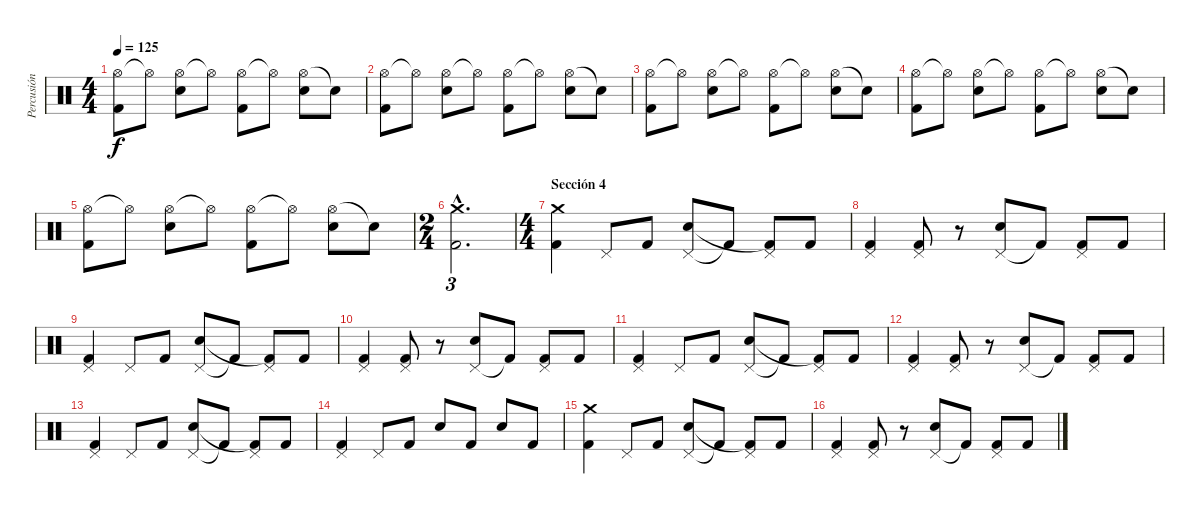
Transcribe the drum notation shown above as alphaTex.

\track ("Percusión" "Percusión") {instrument percussion}
\staff {score}
\articulation defaults
\ts (4 4)
\tempo 125
\clef neutral
\ks c
("Hi-Hat (open)" "Kick (hit) 2").8{dy f} "Hi-Hat (open)"{t}.8 ("Hi-Hat (open)" "Electric Snare (hit)").8 "Hi-Hat (open)"{t}.8 ("Hi-Hat (open)" "Kick (hit) 2").8 "Hi-Hat (open)"{t}.8 ("Hi-Hat (open)" "Electric Snare (hit)").8 "Snare (hit)"{t}.8 |
("Hi-Hat (open)" "Kick (hit) 2").8 "Hi-Hat (open)"{t}.8 ("Hi-Hat (open)" "Electric Snare (hit)").8 "Hi-Hat (open)"{t}.8 ("Hi-Hat (open)" "Kick (hit) 2").8 "Hi-Hat (open)"{t}.8 ("Hi-Hat (open)" "Electric Snare (hit)").8 "Snare (hit)"{t}.8 |
("Hi-Hat (open)" "Kick (hit) 2").8 "Hi-Hat (open)"{t}.8 ("Hi-Hat (open)" "Electric Snare (hit)").8 "Hi-Hat (open)"{t}.8 ("Hi-Hat (open)" "Kick (hit) 2").8 "Hi-Hat (open)"{t}.8 ("Hi-Hat (open)" "Electric Snare (hit)").8 "Snare (hit)"{t}.8 |
("Hi-Hat (open)" "Kick (hit) 2").8 "Hi-Hat (open)"{t}.8 ("Hi-Hat (open)" "Electric Snare (hit)").8 "Hi-Hat (open)"{t}.8 ("Hi-Hat (open)" "Kick (hit) 2").8 "Hi-Hat (open)"{t}.8 ("Hi-Hat (open)" "Electric Snare (hit)").8 "Snare (hit)"{t}.8 |
("Hi-Hat (open)" "Kick (hit) 2").8 "Hi-Hat (open)"{t}.8 ("Hi-Hat (open)" "Electric Snare (hit)").8 "Hi-Hat (open)"{t}.8 ("Hi-Hat (open)" "Kick (hit) 2").8 "Hi-Hat (open)"{t}.8 ("Hi-Hat (open)" "Electric Snare (hit)").8 "Snare (hit)"{t}.8 |
\ts (2 4)
("Kick (hit) 2"{hac} "Crash medium (hit)"{hac}).2{d tu (3 2)} |
\ts (4 4)
\section ("" "Sección 4")
("Kick (hit) 2" "Crash medium (hit)").4 "Pedal Hi-Hat (hit)".8 "Kick (hit) 2".8 ("Pedal Hi-Hat (hit)" "Snare (hit) 2").8 "Kick (hit) 2"{t}.8 ("Pedal Hi-Hat (hit)" "Kick (hit) 2"{t}).8 "Kick (hit) 2".8 |
("Kick (hit) 2" "Pedal Hi-Hat (hit)").4 ("Pedal Hi-Hat (hit)" "Kick (hit) 2").8 r.8 ("Pedal Hi-Hat (hit)" "Snare (hit) 2").8 "Kick (hit) 2"{t}.8 ("Pedal Hi-Hat (hit)" "Kick (hit) 2").8 "Kick (hit) 2".8 |
("Kick (hit) 2" "Pedal Hi-Hat (hit)").4 "Pedal Hi-Hat (hit)".8 "Kick (hit) 2".8 ("Pedal Hi-Hat (hit)" "Snare (hit) 2").8 "Kick (hit) 2"{t}.8 ("Pedal Hi-Hat (hit)" "Kick (hit) 2"{t}).8 "Kick (hit) 2".8 |
("Kick (hit) 2" "Pedal Hi-Hat (hit)").4 ("Pedal Hi-Hat (hit)" "Kick (hit) 2").8 r.8 ("Pedal Hi-Hat (hit)" "Snare (hit) 2").8 "Kick (hit) 2"{t}.8 ("Pedal Hi-Hat (hit)" "Kick (hit) 2").8 "Kick (hit) 2".8 |
("Kick (hit) 2" "Pedal Hi-Hat (hit)").4 "Pedal Hi-Hat (hit)".8 "Kick (hit) 2".8 ("Pedal Hi-Hat (hit)" "Snare (hit) 2").8 "Kick (hit) 2"{t}.8 ("Pedal Hi-Hat (hit)" "Kick (hit) 2"{t}).8 "Kick (hit) 2".8 |
("Kick (hit) 2" "Pedal Hi-Hat (hit)").4 ("Pedal Hi-Hat (hit)" "Kick (hit) 2").8 r.8 ("Pedal Hi-Hat (hit)" "Snare (hit) 2").8 "Kick (hit) 2"{t}.8 ("Pedal Hi-Hat (hit)" "Kick (hit) 2").8 "Kick (hit) 2".8 |
("Kick (hit) 2" "Pedal Hi-Hat (hit)").4 "Pedal Hi-Hat (hit)".8 "Kick (hit) 2".8 ("Pedal Hi-Hat (hit)" "Snare (hit) 2").8 "Kick (hit) 2"{t}.8 ("Pedal Hi-Hat (hit)" "Kick (hit) 2"{t}).8 "Kick (hit) 2".8 |
("Kick (hit) 2" "Pedal Hi-Hat (hit)").4 "Pedal Hi-Hat (hit)".8 "Kick (hit) 2".8 "Electric Snare (hit)".8 "Kick (hit) 2".8 "Electric Snare (hit)".8 "Kick (hit) 2".8 |
("Kick (hit) 2" "Crash medium (hit)").4 "Pedal Hi-Hat (hit)".8 "Kick (hit) 2".8 ("Pedal Hi-Hat (hit)" "Snare (hit) 2").8 "Kick (hit) 2"{t}.8 ("Pedal Hi-Hat (hit)" "Kick (hit) 2"{t}).8 "Kick (hit) 2".8 |
("Kick (hit) 2" "Pedal Hi-Hat (hit)").4 ("Pedal Hi-Hat (hit)" "Kick (hit) 2").8 r.8 ("Pedal Hi-Hat (hit)" "Snare (hit) 2").8 "Kick (hit) 2"{t}.8 ("Pedal Hi-Hat (hit)" "Kick (hit) 2").8 "Kick (hit) 2".8
